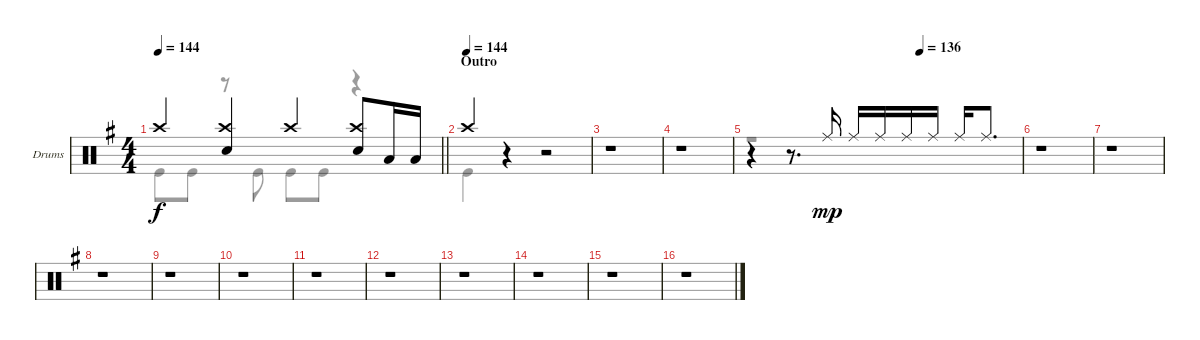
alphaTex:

\bracketExtendMode groupsimilarinstruments
\firstSystemTrackNameOrientation horizontal
\otherSystemsTrackNameOrientation horizontal
\track ("Drumkit" "Drums") {instrument percussion}
\staff {score}
\articulation defaults
\voice
\ts (4 4)
\tempo 144
\clef neutral
\barLineRight lightlight
\ks g "Crash high (hit)".4{dy f}
("Crash high (hit)" "Snare (hit) 2").4 "Crash high (hit)".4 ("Crash high (hit)" "Snare (hit) 2").8 "Low Tom (hit)".16 "Low Tom (hit)".16 |
\section ("" "Outro")
\tempo (144)
"Crash high (hit)".4 r.4 r.2 |
r.1 |
r.1 |
\tempo (136 0.625)
r.4 r.8{d} "Ride (middle)".16{dy mp} "Ride (middle)".16 "Ride (middle)".16 "Ride (middle)".16 "Ride (middle)".16 "Ride (middle)".16 "Ride (middle)".8{d} |
r.1 |
r.1 |
r.1 |
r.1 |
r.1 |
r.1 |
r.1 |
r.1 |
r.1 |
r.1 |
r.1
\voice
\clef neutral
\ottava regular
\simile none
\barLineRight lightlight
\ks g "Kick (hit)".8{dy f} "Kick (hit)".8
r.8 "Kick (hit)".8 "Kick (hit)".8 "Kick (hit)".8 r.4 |
"Kick (hit)".4 r.4 r.2 |
|
|
r.1 |
|
|
|
|
|
|
|
|
|
|
